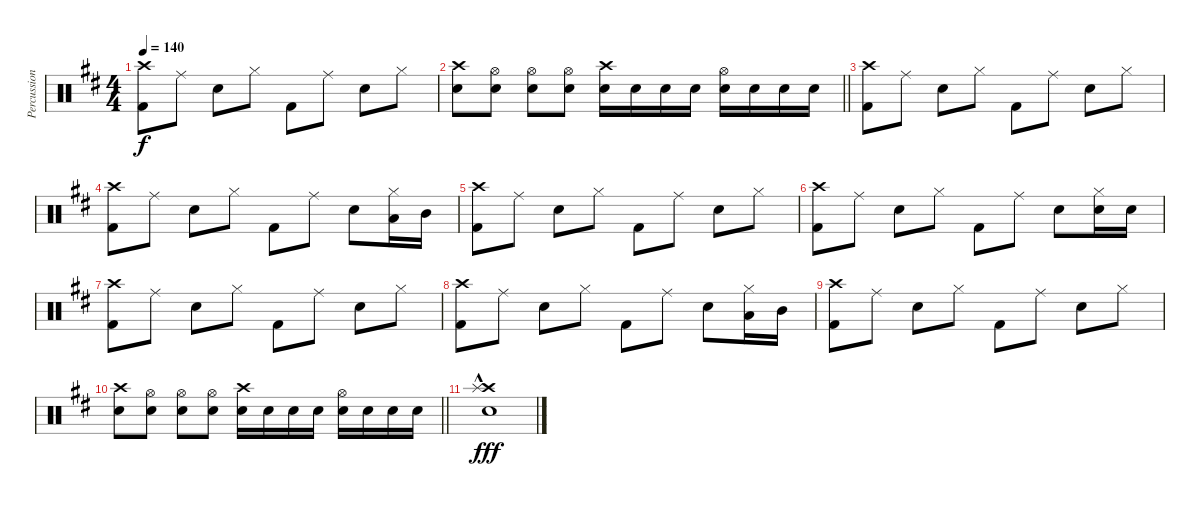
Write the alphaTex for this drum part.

\track ("Percussion" "Percussion") {instrument percussion}
\staff {score}
\articulation defaults
\ts (4 4)
\tempo 140
\clef neutral
\ks d
("Crash high (hit)" "Kick (hit) 2").8{dy f} "Ride (middle)".8 "Snare (hit) 2".8 "Hi-Hat (closed)".8 "Kick (hit) 2".8 "Ride (middle)".8 "Snare (hit) 2".8 "Hi-Hat (closed)".8 |
\barLineRight lightlight
("Crash high (hit)" "Snare (hit) 2").8 ("Hi-Hat (open)" "Snare (hit) 2").8 ("Hi-Hat (open)" "Snare (hit) 2").8 ("Hi-Hat (open)" "Snare (hit) 2").8 ("Crash high (hit)" "Snare (hit) 2").16 "Snare (hit) 2".16 "Snare (hit) 2".16 "Snare (hit) 2".16 ("Hi-Hat (open)" "Snare (hit) 2").16 "Snare (hit) 2".16 "Snare (hit) 2".16 "Snare (hit) 2".16 |
\ks bminor
("Crash high (hit)" "Kick (hit) 2").8 "Ride (middle)".8 "Snare (hit) 2".8 "Hi-Hat (closed)".8 "Kick (hit) 2".8 "Ride (middle)".8 "Snare (hit) 2".8 "Hi-Hat (closed)".8 |
("Crash high (hit)" "Kick (hit) 2").8 "Ride (middle)".8 "Snare (hit) 2".8 "Hi-Hat (closed)".8 "Kick (hit) 2".8 "Ride (middle)".8 "Snare (hit) 2".8 ("Hi-Hat (closed)" "Low Tom (hit)").16 "Mid Tom (hit)".16 |
("Crash high (hit)" "Kick (hit) 2").8 "Ride (middle)".8 "Snare (hit) 2".8 "Hi-Hat (closed)".8 "Kick (hit) 2".8 "Ride (middle)".8 "Snare (hit) 2".8 "Hi-Hat (closed)".8 |
("Crash high (hit)" "Kick (hit) 2").8 "Ride (middle)".8 "Snare (hit) 2".8 "Hi-Hat (closed)".8 "Kick (hit) 2".8 "Ride (middle)".8 "Snare (hit) 2".8 ("Hi-Hat (closed)" "Snare (hit) 2").16 "Snare (hit) 2".16 |
("Crash high (hit)" "Kick (hit) 2").8 "Ride (middle)".8 "Snare (hit) 2".8 "Hi-Hat (closed)".8 "Kick (hit) 2".8 "Ride (middle)".8 "Snare (hit) 2".8 "Hi-Hat (closed)".8 |
("Crash high (hit)" "Kick (hit) 2").8 "Ride (middle)".8 "Snare (hit) 2".8 "Hi-Hat (closed)".8 "Kick (hit) 2".8 "Ride (middle)".8 "Snare (hit) 2".8 ("Hi-Hat (closed)" "Low Tom (hit)").16 "Mid Tom (hit)".16 |
("Crash high (hit)" "Kick (hit) 2").8 "Ride (middle)".8 "Snare (hit) 2".8 "Hi-Hat (closed)".8 "Kick (hit) 2".8 "Ride (middle)".8 "Snare (hit) 2".8 "Hi-Hat (closed)".8 |
\barLineRight lightlight
("Crash high (hit)" "Snare (hit) 2").8 ("Hi-Hat (open)" "Snare (hit) 2").8 ("Hi-Hat (open)" "Snare (hit) 2").8 ("Hi-Hat (open)" "Snare (hit) 2").8 ("Crash high (hit)" "Snare (hit) 2").16 "Snare (hit) 2".16 "Snare (hit) 2".16 "Snare (hit) 2".16 ("Hi-Hat (open)" "Snare (hit) 2").16 "Snare (hit) 2".16 "Snare (hit) 2".16 "Snare (hit) 2".16 |
("Crash high (hit)"{hac} "Splash (hit)"{hac} "Snare (hit) 2"{hac}).1{dy fff}
